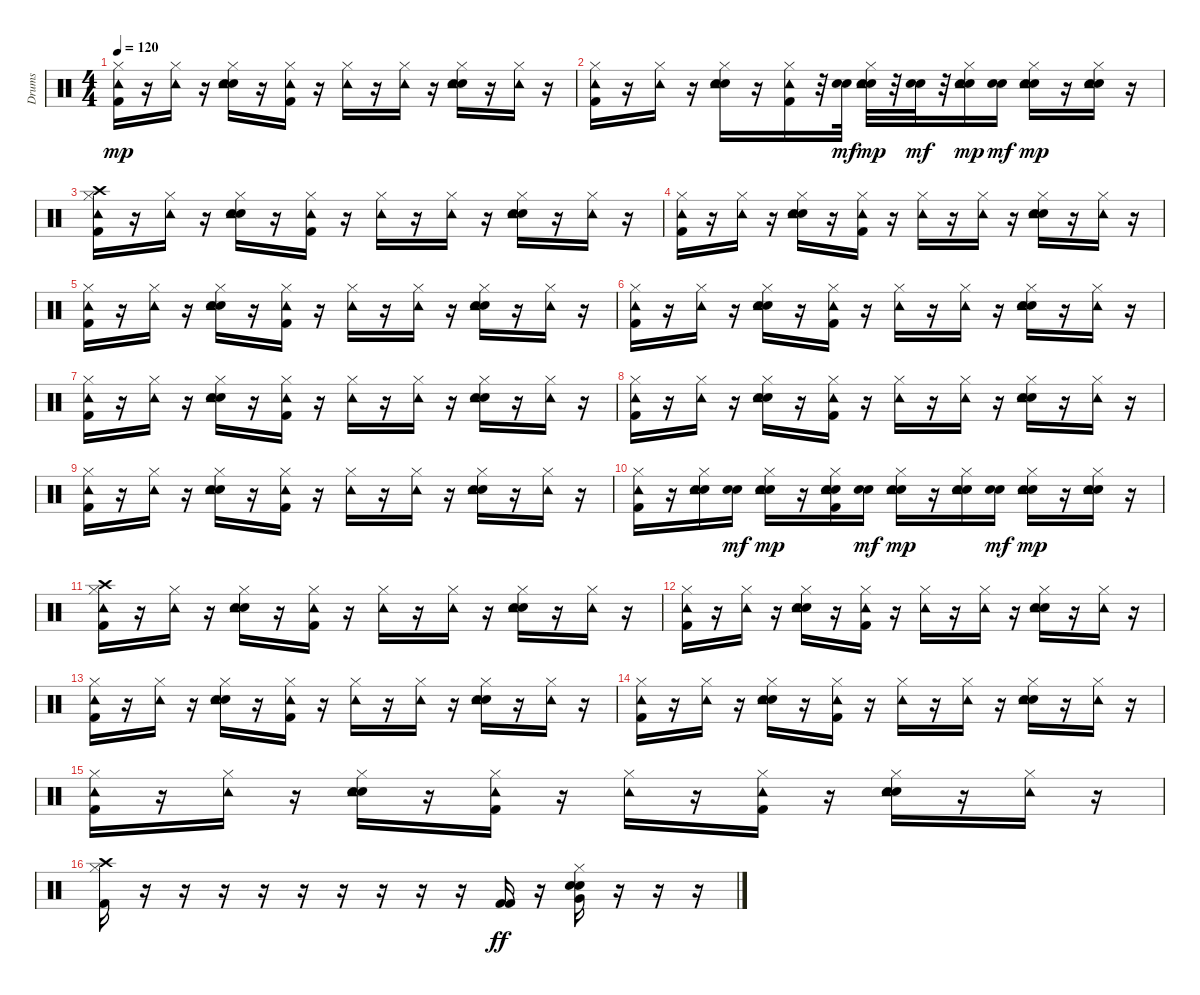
\track ("Drums" "Drums") {instrument percussion}
\staff {score}
\articulation defaults
\ts (4 4)
\tempo 120
\clef neutral
\ks c
("Hi-Hat (closed)" "Tambourine (hit)" "Kick (hit) 2").16{dy mp} r.16 ("Hi-Hat (closed)" "Tambourine (hit)").16 r.16 ("Hi-Hat (closed)" "Snare (hit) 2" "Electric Snare (hit)" "Tambourine (hit)").16 r.16 ("Hi-Hat (closed)" "Tambourine (hit)" "Kick (hit) 2").16 r.16 ("Hi-Hat (closed)" "Tambourine (hit)").16 r.16 ("Hi-Hat (closed)" "Tambourine (hit)").16 r.16 ("Hi-Hat (closed)" "Snare (hit) 2" "Electric Snare (hit)" "Tambourine (hit)").16 r.16 ("Hi-Hat (closed)" "Tambourine (hit)").16 r.16 |
("Hi-Hat (closed)" "Tambourine (hit)" "Kick (hit) 2").16 r.16 ("Hi-Hat (closed)" "Tambourine (hit)").16 r.16 ("Hi-Hat (closed)" "Snare (hit) 2" "Electric Snare (hit)" "Tambourine (hit)").16 r.16 ("Hi-Hat (closed)" "Tambourine (hit)" "Kick (hit) 2").16 r.32 ("Snare (hit) 2" "Electric Snare (hit)").32{dy mf} ("Hi-Hat (closed)" "Snare (hit) 2" "Electric Snare (hit)" "Tambourine (hit)").32{dy mp} r.32 ("Snare (hit) 2" "Electric Snare (hit)").32{dy mf} r.32 ("Hi-Hat (closed)" "Snare (hit) 2" "Electric Snare (hit)" "Tambourine (hit)").16{dy mp} ("Snare (hit) 2" "Electric Snare (hit)").16{dy mf} ("Hi-Hat (closed)" "Snare (hit) 2" "Electric Snare (hit)" "Tambourine (hit)").16{dy mp} r.16 ("Hi-Hat (closed)" "Snare (hit) 2" "Electric Snare (hit)" "Tambourine (hit)").16 r.16 |
("Hi-Hat (closed)" "Crash high (hit)" "Tambourine (hit)" "Kick (hit) 2").16 r.16 ("Hi-Hat (closed)" "Tambourine (hit)").16 r.16 ("Hi-Hat (closed)" "Snare (hit) 2" "Electric Snare (hit)" "Tambourine (hit)").16 r.16 ("Hi-Hat (closed)" "Tambourine (hit)" "Kick (hit) 2").16 r.16 ("Hi-Hat (closed)" "Tambourine (hit)").16 r.16 ("Hi-Hat (closed)" "Tambourine (hit)").16 r.16 ("Hi-Hat (closed)" "Snare (hit) 2" "Electric Snare (hit)" "Tambourine (hit)").16 r.16 ("Hi-Hat (closed)" "Tambourine (hit)").16 r.16 |
("Hi-Hat (closed)" "Tambourine (hit)" "Kick (hit) 2").16 r.16 ("Hi-Hat (closed)" "Tambourine (hit)").16 r.16 ("Hi-Hat (closed)" "Snare (hit) 2" "Electric Snare (hit)" "Tambourine (hit)").16 r.16 ("Hi-Hat (closed)" "Tambourine (hit)" "Kick (hit) 2").16 r.16 ("Hi-Hat (closed)" "Tambourine (hit)").16 r.16 ("Hi-Hat (closed)" "Tambourine (hit)").16 r.16 ("Hi-Hat (closed)" "Snare (hit) 2" "Electric Snare (hit)" "Tambourine (hit)").16 r.16 ("Hi-Hat (closed)" "Tambourine (hit)").16 r.16 |
("Hi-Hat (closed)" "Tambourine (hit)" "Kick (hit) 2").16 r.16 ("Hi-Hat (closed)" "Tambourine (hit)").16 r.16 ("Hi-Hat (closed)" "Snare (hit) 2" "Electric Snare (hit)" "Tambourine (hit)").16 r.16 ("Hi-Hat (closed)" "Tambourine (hit)" "Kick (hit) 2").16 r.16 ("Hi-Hat (closed)" "Tambourine (hit)").16 r.16 ("Hi-Hat (closed)" "Tambourine (hit)").16 r.16 ("Hi-Hat (closed)" "Snare (hit) 2" "Electric Snare (hit)" "Tambourine (hit)").16 r.16 ("Hi-Hat (closed)" "Tambourine (hit)").16 r.16 |
("Hi-Hat (closed)" "Tambourine (hit)" "Kick (hit) 2").16 r.16 ("Hi-Hat (closed)" "Tambourine (hit)").16 r.16 ("Hi-Hat (closed)" "Snare (hit) 2" "Electric Snare (hit)" "Tambourine (hit)").16 r.16 ("Hi-Hat (closed)" "Tambourine (hit)" "Kick (hit) 2").16 r.16 ("Hi-Hat (closed)" "Tambourine (hit)").16 r.16 ("Hi-Hat (closed)" "Tambourine (hit)").16 r.16 ("Hi-Hat (closed)" "Snare (hit) 2" "Electric Snare (hit)" "Tambourine (hit)").16 r.16 ("Hi-Hat (closed)" "Tambourine (hit)").16 r.16 |
("Hi-Hat (closed)" "Tambourine (hit)" "Kick (hit) 2").16 r.16 ("Hi-Hat (closed)" "Tambourine (hit)").16 r.16 ("Hi-Hat (closed)" "Snare (hit) 2" "Electric Snare (hit)" "Tambourine (hit)").16 r.16 ("Hi-Hat (closed)" "Tambourine (hit)" "Kick (hit) 2").16 r.16 ("Hi-Hat (closed)" "Tambourine (hit)").16 r.16 ("Hi-Hat (closed)" "Tambourine (hit)").16 r.16 ("Hi-Hat (closed)" "Snare (hit) 2" "Electric Snare (hit)" "Tambourine (hit)").16 r.16 ("Hi-Hat (closed)" "Tambourine (hit)").16 r.16 |
("Hi-Hat (closed)" "Tambourine (hit)" "Kick (hit) 2").16 r.16 ("Hi-Hat (closed)" "Tambourine (hit)").16 r.16 ("Hi-Hat (closed)" "Snare (hit) 2" "Electric Snare (hit)" "Tambourine (hit)").16 r.16 ("Hi-Hat (closed)" "Tambourine (hit)" "Kick (hit) 2").16 r.16 ("Hi-Hat (closed)" "Tambourine (hit)").16 r.16 ("Hi-Hat (closed)" "Tambourine (hit)").16 r.16 ("Hi-Hat (closed)" "Snare (hit) 2" "Electric Snare (hit)" "Tambourine (hit)").16 r.16 ("Hi-Hat (closed)" "Tambourine (hit)").16 r.16 |
("Hi-Hat (closed)" "Tambourine (hit)" "Kick (hit) 2").16 r.16 ("Hi-Hat (closed)" "Tambourine (hit)").16 r.16 ("Hi-Hat (closed)" "Snare (hit) 2" "Electric Snare (hit)" "Tambourine (hit)").16 r.16 ("Hi-Hat (closed)" "Tambourine (hit)" "Kick (hit) 2").16 r.16 ("Hi-Hat (closed)" "Tambourine (hit)").16 r.16 ("Hi-Hat (closed)" "Tambourine (hit)").16 r.16 ("Hi-Hat (closed)" "Snare (hit) 2" "Electric Snare (hit)" "Tambourine (hit)").16 r.16 ("Hi-Hat (closed)" "Tambourine (hit)").16 r.16 |
("Hi-Hat (closed)" "Tambourine (hit)" "Kick (hit) 2").16 r.16 ("Hi-Hat (closed)" "Snare (hit) 2" "Electric Snare (hit)" "Tambourine (hit)").16 ("Snare (hit) 2" "Electric Snare (hit)").16{dy mf} ("Hi-Hat (closed)" "Snare (hit) 2" "Electric Snare (hit)" "Tambourine (hit)").16{dy mp} r.16 ("Hi-Hat (closed)" "Snare (hit) 2" "Electric Snare (hit)" "Tambourine (hit)" "Kick (hit) 2").16 ("Snare (hit) 2" "Electric Snare (hit)").16{dy mf} ("Hi-Hat (closed)" "Snare (hit) 2" "Electric Snare (hit)" "Tambourine (hit)").16{dy mp} r.16 ("Hi-Hat (closed)" "Snare (hit) 2" "Electric Snare (hit)" "Tambourine (hit)").16 ("Snare (hit) 2" "Electric Snare (hit)").16{dy mf} ("Hi-Hat (closed)" "Snare (hit) 2" "Electric Snare (hit)" "Tambourine (hit)").16{dy mp} r.16 ("Hi-Hat (closed)" "Snare (hit) 2" "Electric Snare (hit)" "Tambourine (hit)").16 r.16 |
("Hi-Hat (closed)" "Crash high (hit)" "Tambourine (hit)" "Kick (hit) 2").16 r.16 ("Hi-Hat (closed)" "Tambourine (hit)").16 r.16 ("Hi-Hat (closed)" "Snare (hit) 2" "Electric Snare (hit)" "Tambourine (hit)").16 r.16 ("Hi-Hat (closed)" "Tambourine (hit)" "Kick (hit) 2").16 r.16 ("Hi-Hat (closed)" "Tambourine (hit)").16 r.16 ("Hi-Hat (closed)" "Tambourine (hit)").16 r.16 ("Hi-Hat (closed)" "Snare (hit) 2" "Electric Snare (hit)" "Tambourine (hit)").16 r.16 ("Hi-Hat (closed)" "Tambourine (hit)").16 r.16 |
("Hi-Hat (closed)" "Tambourine (hit)" "Kick (hit) 2").16 r.16 ("Hi-Hat (closed)" "Tambourine (hit)").16 r.16 ("Hi-Hat (closed)" "Snare (hit) 2" "Electric Snare (hit)" "Tambourine (hit)").16 r.16 ("Hi-Hat (closed)" "Tambourine (hit)" "Kick (hit) 2").16 r.16 ("Hi-Hat (closed)" "Tambourine (hit)").16 r.16 ("Hi-Hat (closed)" "Tambourine (hit)").16 r.16 ("Hi-Hat (closed)" "Snare (hit) 2" "Electric Snare (hit)" "Tambourine (hit)").16 r.16 ("Hi-Hat (closed)" "Tambourine (hit)").16 r.16 |
("Hi-Hat (closed)" "Tambourine (hit)" "Kick (hit) 2").16 r.16 ("Hi-Hat (closed)" "Tambourine (hit)").16 r.16 ("Hi-Hat (closed)" "Snare (hit) 2" "Electric Snare (hit)" "Tambourine (hit)").16 r.16 ("Hi-Hat (closed)" "Tambourine (hit)" "Kick (hit) 2").16 r.16 ("Hi-Hat (closed)" "Tambourine (hit)").16 r.16 ("Hi-Hat (closed)" "Tambourine (hit)").16 r.16 ("Hi-Hat (closed)" "Snare (hit) 2" "Electric Snare (hit)" "Tambourine (hit)").16 r.16 ("Hi-Hat (closed)" "Tambourine (hit)").16 r.16 |
("Hi-Hat (closed)" "Tambourine (hit)" "Kick (hit) 2").16 r.16 ("Hi-Hat (closed)" "Tambourine (hit)").16 r.16 ("Hi-Hat (closed)" "Snare (hit) 2" "Electric Snare (hit)" "Tambourine (hit)").16 r.16 ("Hi-Hat (closed)" "Tambourine (hit)" "Kick (hit) 2").16 r.16 ("Hi-Hat (closed)" "Tambourine (hit)").16 r.16 ("Hi-Hat (closed)" "Tambourine (hit)").16 r.16 ("Hi-Hat (closed)" "Snare (hit) 2" "Electric Snare (hit)" "Tambourine (hit)").16 r.16 ("Hi-Hat (closed)" "Tambourine (hit)").16 r.16 |
("Hi-Hat (closed)" "Tambourine (hit)" "Kick (hit) 2").16 r.16 ("Hi-Hat (closed)" "Tambourine (hit)").16 r.16 ("Hi-Hat (closed)" "Snare (hit) 2" "Electric Snare (hit)" "Tambourine (hit)").16 r.16 ("Hi-Hat (closed)" "Tambourine (hit)" "Kick (hit) 2").16 r.16 ("Hi-Hat (closed)" "Tambourine (hit)").16 r.16 ("Hi-Hat (closed)" "Tambourine (hit)" "Kick (hit) 2").16 r.16 ("Hi-Hat (closed)" "Snare (hit) 2" "Electric Snare (hit)" "Tambourine (hit)").16 r.16 ("Hi-Hat (closed)" "Tambourine (hit)").16 r.16 |
("Hi-Hat (closed)" "Crash high (hit)" "Kick (hit) 2").16 r.16 r.16 r.16 r.16 r.16 r.16 r.16 r.16 r.16 ("Kick (hit) 2" "Kick (hit) 2").16{dy ff} r.16 ("Hi-Hat (closed)" "Very Low Tom (hit)" "Snare (hit) 2" "Electric Snare (hit)").16 r.16 r.16 r.16
